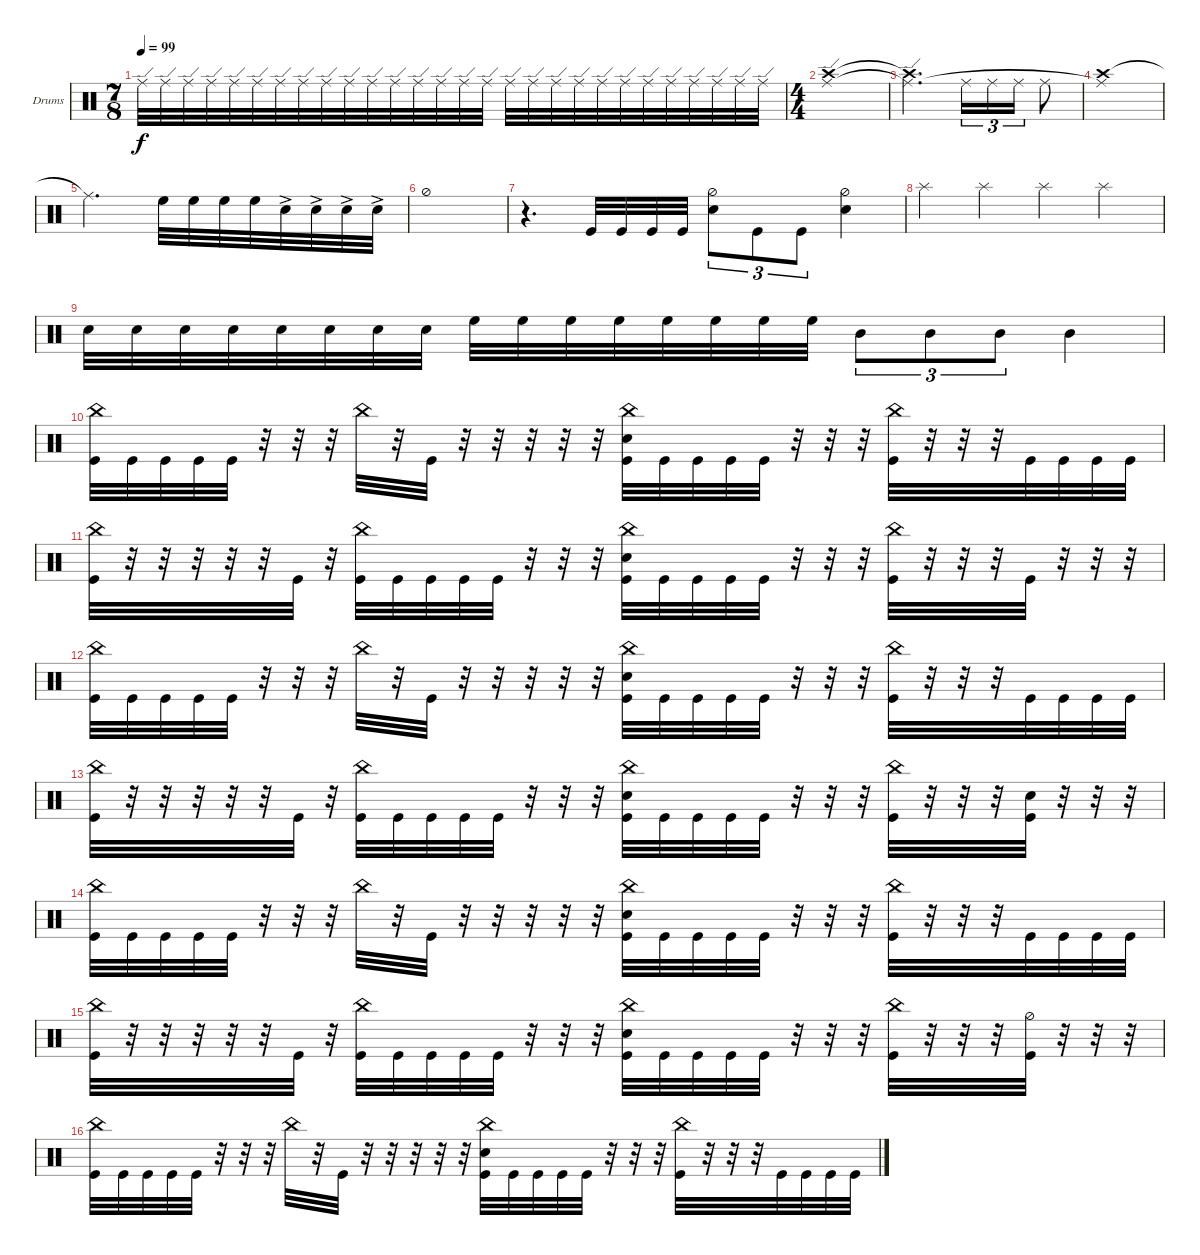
\defaultSystemsLayout 4
\bracketExtendMode groupsimilarinstruments
\firstSystemTrackNameOrientation horizontal
\otherSystemsTrackNameOrientation horizontal
\track ("Drumkit" "Drums") {instrument percussion}
\staff {score}
\articulation defaults
\ts (7 8)
\tempo 99
\clef neutral
\scale
0.474178
\ks c "Ride (edge)".32{dy f} "Ride (edge)".32 "Ride (edge)".32 "Ride (edge)".32 "Ride (edge)".32 "Ride (edge)".32 "Ride (edge)".32 "Ride (edge)".32 "Ride (edge)".32 "Ride (edge)".32 "Ride (edge)".32 "Ride (edge)".32 "Ride (edge)".32 "Ride (edge)".32 "Ride (edge)".32 "Ride (edge)".32 "Ride (edge)".32 "Ride (edge)".32 "Ride (edge)".32 "Ride (edge)".32 "Ride (edge)".32 "Ride (edge)".32 "Ride (edge)".32 "Ride (edge)".32 "Ride (edge)".32 "Ride (edge)".32 "Ride (edge)".32 "Ride (edge)".32
|
\ts (4 4)
\scale
0.262911 ("Crash high (hit)" "Ride (edge)").1 |
\scale
0.262911 ("Crash high (hit)"{t} "Ride (edge)"{t}).2{d} "Ride (middle)".16{tu (3 2)} "Ride (middle)".16{tu (3 2)} "Ride (middle)".16{tu (3 2)} "Ride (middle)".8 |
\scale
0.333333 ("Crash high (hit)" "Ride (middle)"{t}).1 |
\scale
0.333333 "Ride (middle)"{t}.2{d} "High Floor Tom (hit)".32 "High Floor Tom (hit)".32 "High Floor Tom (hit)".32 "High Floor Tom (hit)".32 "Snare (hit) 2"{ac}.32 "Snare (hit) 2"{ac}.32 "Snare (hit) 2"{ac}.32 "Snare (hit) 2"{ac}.32 |
\scale
0.333333 "Hi-Hat (half)".1 |
\scale
0.333333 r.4{d} "Kick (hit)".32 "Kick (hit)".32 "Kick (hit)".32 "Kick (hit)".32 ("Snare (hit) 2" "Hi-Hat (half)").8{tu (3 2)} "Kick (hit)".8{tu (3 2)} "Kick (hit)".8{tu (3 2)} ("Snare (hit) 2" "Hi-Hat (half)").4 |
\scale
0.333333 "Splash (hit)".4 "Splash (hit)".4 "Splash (hit)".4 "Splash (hit)".4 |
\scale
0.333333 "Snare (hit) 2".32 "Snare (hit) 2".32 "Snare (hit) 2".32 "Snare (hit) 2".32 "Snare (hit) 2".32 "Snare (hit) 2".32 "Snare (hit) 2".32 "Snare (hit) 2".32 "High Floor Tom (hit)".32 "High Floor Tom (hit)".32 "High Floor Tom (hit)".32 "High Floor Tom (hit)".32 "High Floor Tom (hit)".32 "High Floor Tom (hit)".32 "High Floor Tom (hit)".32 "High Floor Tom (hit)".32 "Mid Tom (hit)".8{tu (3 2)} "Mid Tom (hit)".8{tu (3 2)} "Mid Tom (hit)".8{tu (3 2)} "Mid Tom (hit)".4 |
("China (hit)" "Kick (hit)").32 "Kick (hit)".32 "Kick (hit)".32 "Kick (hit)".32 "Kick (hit)".32 r.32 r.32 r.32 "China (hit)".32 r.32 "Kick (hit)".32 r.32 r.32 r.32 r.32 r.32 ("China (hit)" "Snare (hit) 2" "Kick (hit)").32 "Kick (hit)".32 "Kick (hit)".32 "Kick (hit)".32 "Kick (hit)".32 r.32 r.32 r.32 ("China (hit)" "Kick (hit)").32 r.32 r.32 r.32 "Kick (hit)".32 "Kick (hit)".32 "Kick (hit)".32 "Kick (hit)".32 |
("China (hit)" "Kick (hit)").32 r.32 r.32 r.32 r.32 r.32 "Kick (hit)".32 r.32 ("China (hit)" "Kick (hit)").32 "Kick (hit)".32 "Kick (hit)".32 "Kick (hit)".32 "Kick (hit)".32 r.32 r.32 r.32 ("China (hit)" "Snare (hit) 2" "Kick (hit)").32 "Kick (hit)".32 "Kick (hit)".32 "Kick (hit)".32 "Kick (hit)".32 r.32 r.32 r.32 ("China (hit)" "Kick (hit)").32 r.32 r.32 r.32 "Kick (hit)".32 r.32 r.32 r.32 |
("China (hit)" "Kick (hit)").32 "Kick (hit)".32 "Kick (hit)".32 "Kick (hit)".32 "Kick (hit)".32 r.32 r.32 r.32 "China (hit)".32 r.32 "Kick (hit)".32 r.32 r.32 r.32 r.32 r.32 ("China (hit)" "Snare (hit) 2" "Kick (hit)").32 "Kick (hit)".32 "Kick (hit)".32 "Kick (hit)".32 "Kick (hit)".32 r.32 r.32 r.32 ("China (hit)" "Kick (hit)").32 r.32 r.32 r.32 "Kick (hit)".32 "Kick (hit)".32 "Kick (hit)".32 "Kick (hit)".32 |
("China (hit)" "Kick (hit)").32 r.32 r.32 r.32 r.32 r.32 "Kick (hit)".32 r.32 ("China (hit)" "Kick (hit)").32 "Kick (hit)".32 "Kick (hit)".32 "Kick (hit)".32 "Kick (hit)".32 r.32 r.32 r.32 ("China (hit)" "Snare (hit) 2" "Kick (hit)").32 "Kick (hit)".32 "Kick (hit)".32 "Kick (hit)".32 "Kick (hit)".32 r.32 r.32 r.32 ("China (hit)" "Kick (hit)").32 r.32 r.32 r.32 ("Kick (hit)" "Snare (hit) 2").32 r.32 r.32 r.32 |
("China (hit)" "Kick (hit)").32 "Kick (hit)".32 "Kick (hit)".32 "Kick (hit)".32 "Kick (hit)".32 r.32 r.32 r.32 "China (hit)".32 r.32 "Kick (hit)".32 r.32 r.32 r.32 r.32 r.32 ("China (hit)" "Snare (hit) 2" "Kick (hit)").32 "Kick (hit)".32 "Kick (hit)".32 "Kick (hit)".32 "Kick (hit)".32 r.32 r.32 r.32 ("China (hit)" "Kick (hit)").32 r.32 r.32 r.32 "Kick (hit)".32 "Kick (hit)".32 "Kick (hit)".32 "Kick (hit)".32 |
("China (hit)" "Kick (hit)").32 r.32 r.32 r.32 r.32 r.32 "Kick (hit)".32 r.32 ("China (hit)" "Kick (hit)").32 "Kick (hit)".32 "Kick (hit)".32 "Kick (hit)".32 "Kick (hit)".32 r.32 r.32 r.32 ("China (hit)" "Snare (hit) 2" "Kick (hit)").32 "Kick (hit)".32 "Kick (hit)".32 "Kick (hit)".32 "Kick (hit)".32 r.32 r.32 r.32 ("China (hit)" "Kick (hit)").32 r.32 r.32 r.32 ("Kick (hit)" "Hi-Hat (half)").32 r.32 r.32 r.32 |
("China (hit)" "Kick (hit)").32 "Kick (hit)".32 "Kick (hit)".32 "Kick (hit)".32 "Kick (hit)".32 r.32 r.32 r.32 "China (hit)".32 r.32 "Kick (hit)".32 r.32 r.32 r.32 r.32 r.32 ("China (hit)" "Snare (hit) 2" "Kick (hit)").32 "Kick (hit)".32 "Kick (hit)".32 "Kick (hit)".32 "Kick (hit)".32 r.32 r.32 r.32 ("China (hit)" "Kick (hit)").32 r.32 r.32 r.32 "Kick (hit)".32 "Kick (hit)".32 "Kick (hit)".32 "Kick (hit)".32
